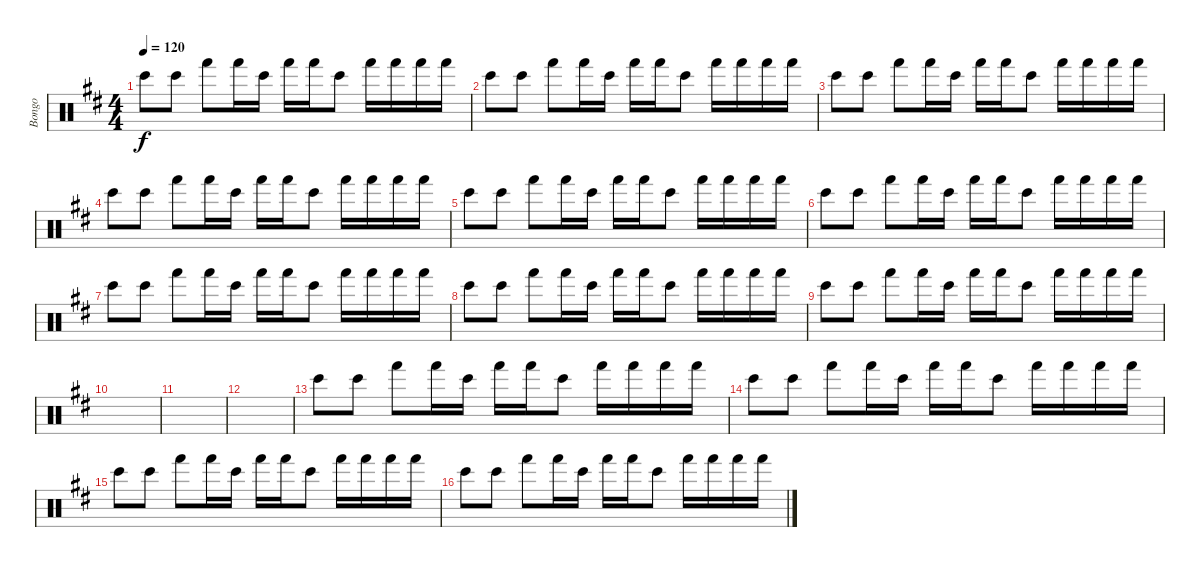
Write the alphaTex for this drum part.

\track ("Bongo" "Bongo") {instrument percussion}
\staff {score}
\articulation defaults
\ts (4 4)
\tempo 120
\clef neutral
\ks d "Bongo High (hit)".8{dy f} "Bongo High (hit)".8 "Hand (hit)".8 "Hand (hit)".16 "Bongo High (hit)".16 "Hand (hit)".16 "Hand (hit)".16 "Bongo High (hit)".8 "Hand (hit)".16 "Hand (hit)".16 "Hand (hit)".16 "Hand (hit)".16
|
"Bongo High (hit)".8 "Bongo High (hit)".8 "Hand (hit)".8 "Hand (hit)".16 "Bongo High (hit)".16 "Hand (hit)".16 "Hand (hit)".16 "Bongo High (hit)".8 "Hand (hit)".16 "Hand (hit)".16 "Hand (hit)".16 "Hand (hit)".16 |
"Bongo High (hit)".8 "Bongo High (hit)".8 "Hand (hit)".8 "Hand (hit)".16 "Bongo High (hit)".16 "Hand (hit)".16 "Hand (hit)".16 "Bongo High (hit)".8 "Hand (hit)".16 "Hand (hit)".16 "Hand (hit)".16 "Hand (hit)".16 |
"Bongo High (hit)".8 "Bongo High (hit)".8 "Hand (hit)".8 "Hand (hit)".16 "Bongo High (hit)".16 "Hand (hit)".16 "Hand (hit)".16 "Bongo High (hit)".8 "Hand (hit)".16 "Hand (hit)".16 "Hand (hit)".16 "Hand (hit)".16 |
"Bongo High (hit)".8 "Bongo High (hit)".8 "Hand (hit)".8 "Hand (hit)".16 "Bongo High (hit)".16 "Hand (hit)".16 "Hand (hit)".16 "Bongo High (hit)".8 "Hand (hit)".16 "Hand (hit)".16 "Hand (hit)".16 "Hand (hit)".16 |
"Bongo High (hit)".8 "Bongo High (hit)".8 "Hand (hit)".8 "Hand (hit)".16 "Bongo High (hit)".16 "Hand (hit)".16 "Hand (hit)".16 "Bongo High (hit)".8 "Hand (hit)".16 "Hand (hit)".16 "Hand (hit)".16 "Hand (hit)".16 |
"Bongo High (hit)".8 "Bongo High (hit)".8 "Hand (hit)".8 "Hand (hit)".16 "Bongo High (hit)".16 "Hand (hit)".16 "Hand (hit)".16 "Bongo High (hit)".8 "Hand (hit)".16 "Hand (hit)".16 "Hand (hit)".16 "Hand (hit)".16 |
"Bongo High (hit)".8 "Bongo High (hit)".8 "Hand (hit)".8 "Hand (hit)".16 "Bongo High (hit)".16 "Hand (hit)".16 "Hand (hit)".16 "Bongo High (hit)".8 "Hand (hit)".16 "Hand (hit)".16 "Hand (hit)".16 "Hand (hit)".16 |
"Bongo High (hit)".8 "Bongo High (hit)".8 "Hand (hit)".8 "Hand (hit)".16 "Bongo High (hit)".16 "Hand (hit)".16 "Hand (hit)".16 "Bongo High (hit)".8 "Hand (hit)".16 "Hand (hit)".16 "Hand (hit)".16 "Hand (hit)".16 |
|
|
|
"Bongo High (hit)".8 "Bongo High (hit)".8 "Hand (hit)".8 "Hand (hit)".16 "Bongo High (hit)".16 "Hand (hit)".16 "Hand (hit)".16 "Bongo High (hit)".8 "Hand (hit)".16 "Hand (hit)".16 "Hand (hit)".16 "Hand (hit)".16 |
"Bongo High (hit)".8 "Bongo High (hit)".8 "Hand (hit)".8 "Hand (hit)".16 "Bongo High (hit)".16 "Hand (hit)".16 "Hand (hit)".16 "Bongo High (hit)".8 "Hand (hit)".16 "Hand (hit)".16 "Hand (hit)".16 "Hand (hit)".16 |
"Bongo High (hit)".8 "Bongo High (hit)".8 "Hand (hit)".8 "Hand (hit)".16 "Bongo High (hit)".16 "Hand (hit)".16 "Hand (hit)".16 "Bongo High (hit)".8 "Hand (hit)".16 "Hand (hit)".16 "Hand (hit)".16 "Hand (hit)".16 |
"Bongo High (hit)".8 "Bongo High (hit)".8 "Hand (hit)".8 "Hand (hit)".16 "Bongo High (hit)".16 "Hand (hit)".16 "Hand (hit)".16 "Bongo High (hit)".8 "Hand (hit)".16 "Hand (hit)".16 "Hand (hit)".16 "Hand (hit)".16
